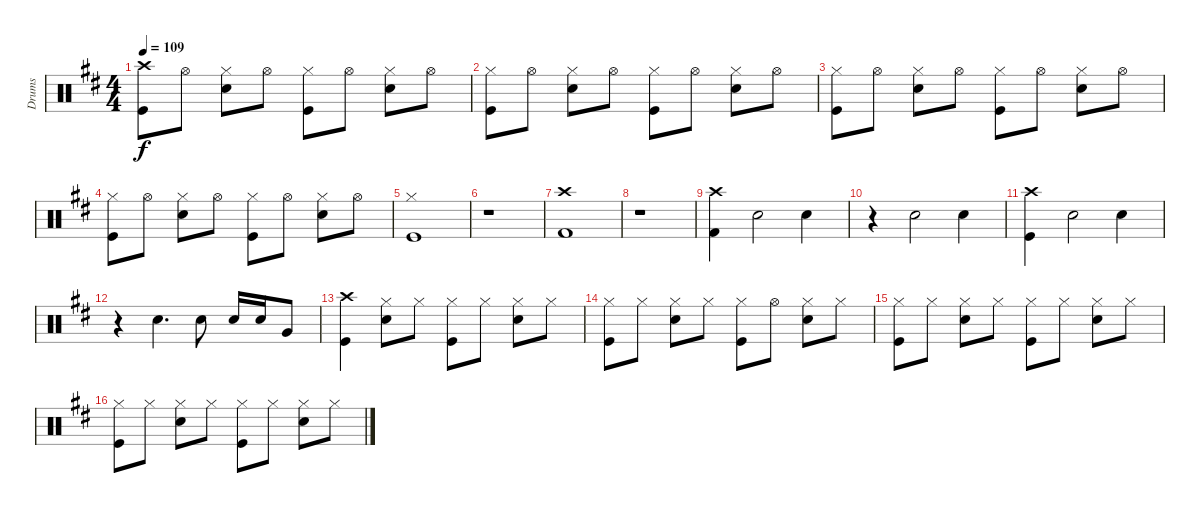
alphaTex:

\track ("Drums" "Drums") {instrument percussion}
\staff {score}
\articulation defaults
\ts (4 4)
\tempo 109
\clef neutral
\ks d
("Crash high (hit)" "Kick (hit)").8{dy f} "Hi-Hat (open)".8 ("Hi-Hat (closed)" "Snare (hit) 2").8 "Hi-Hat (open)".8 ("Hi-Hat (closed)" "Kick (hit)").8 "Hi-Hat (open)".8 ("Hi-Hat (closed)" "Snare (hit) 2").8 "Hi-Hat (open)".8 |
("Hi-Hat (closed)" "Kick (hit)").8 "Hi-Hat (open)".8 ("Hi-Hat (closed)" "Snare (hit) 2").8 "Hi-Hat (open)".8 ("Hi-Hat (closed)" "Kick (hit)").8 "Hi-Hat (open)".8 ("Hi-Hat (closed)" "Snare (hit) 2").8 "Hi-Hat (open)".8 |
("Hi-Hat (closed)" "Kick (hit)").8 "Hi-Hat (open)".8 ("Hi-Hat (closed)" "Snare (hit) 2").8 "Hi-Hat (open)".8 ("Hi-Hat (closed)" "Kick (hit)").8 "Hi-Hat (open)".8 ("Hi-Hat (closed)" "Snare (hit) 2").8 "Hi-Hat (open)".8 |
("Hi-Hat (closed)" "Kick (hit)").8 "Hi-Hat (open)".8 ("Hi-Hat (closed)" "Snare (hit) 2").8 "Hi-Hat (open)".8 ("Hi-Hat (closed)" "Kick (hit)").8 "Hi-Hat (open)".8 ("Hi-Hat (closed)" "Snare (hit) 2").8 "Hi-Hat (open)".8 |
("Hi-Hat (closed)" "Kick (hit)").1 |
r.1 |
("Crash high (hit)" "Kick (hit) 2").1 |
r.1 |
("Crash high (hit)" "Kick (hit) 2").4 "Snare (hit) 2".2 "Snare (hit) 2".4 |
r.4 "Snare (hit) 2".2 "Snare (hit) 2".4 |
("Crash high (hit)" "Kick (hit)").4 "Snare (hit) 2".2 "Snare (hit) 2".4 |
r.4 "Snare (hit) 2".4{d} "Snare (hit) 2".8 "Snare (hit) 2".16 "Snare (hit) 2".16 "Very Low Tom (hit)".8 |
("Crash high (hit)" "Kick (hit)").4 ("Hi-Hat (closed)" "Snare (hit) 2").8 "Hi-Hat (closed)".8 ("Hi-Hat (closed)" "Kick (hit)").8 "Hi-Hat (closed)".8 ("Hi-Hat (closed)" "Snare (hit) 2").8 "Hi-Hat (closed)".8 |
("Kick (hit)" "Hi-Hat (closed)").8 "Hi-Hat (closed)".8 ("Snare (hit) 2" "Hi-Hat (closed)").8 "Hi-Hat (closed)".8 ("Kick (hit)" "Hi-Hat (closed)").8 "Hi-Hat (open)".8 ("Snare (hit) 2" "Hi-Hat (closed)").8 "Hi-Hat (closed)".8 |
("Kick (hit)" "Hi-Hat (closed)").8 "Hi-Hat (closed)".8 ("Snare (hit) 2" "Hi-Hat (closed)").8 "Hi-Hat (closed)".8 ("Kick (hit)" "Hi-Hat (closed)").8 "Hi-Hat (closed)".8 ("Snare (hit) 2" "Hi-Hat (closed)").8 "Hi-Hat (closed)".8 |
("Kick (hit)" "Hi-Hat (closed)").8 "Hi-Hat (closed)".8 ("Snare (hit) 2" "Hi-Hat (closed)").8 "Hi-Hat (closed)".8 ("Kick (hit)" "Hi-Hat (closed)").8 "Hi-Hat (closed)".8 ("Snare (hit) 2" "Hi-Hat (closed)").8 "Hi-Hat (closed)".8
